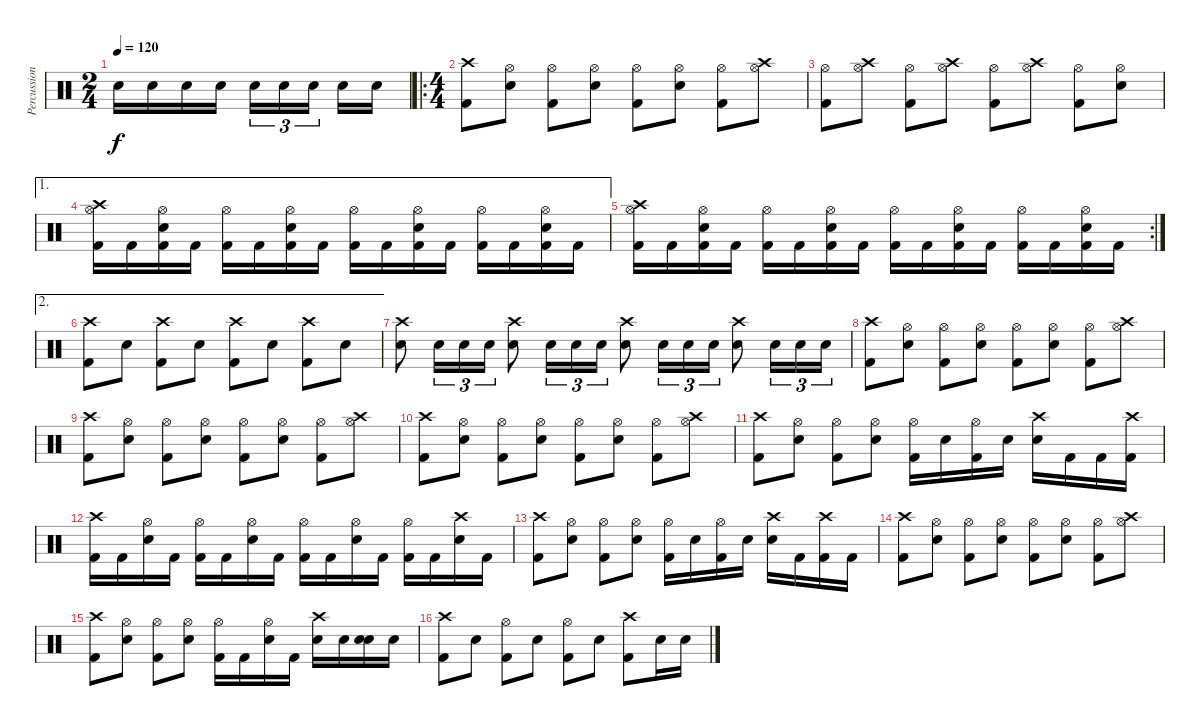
\track ("Percussion" "Percussion") {instrument percussion}
\staff {score}
\articulation defaults
\ts (2 4)
\tempo 120
\clef neutral
\ks c "Electric Snare (hit)".16{dy f} "Electric Snare (hit)".16 "Electric Snare (hit)".16 "Electric Snare (hit)".16 "Electric Snare (hit)".16{tu (3 2)} "Electric Snare (hit)".16{tu (3 2)} "Electric Snare (hit)".16{tu (3 2)} "Electric Snare (hit)".16 "Electric Snare (hit)".16
|
\ro
\ts (4 4)
("Kick (hit) 2" "Crash high (hit)").8 ("Electric Snare (hit)" "Hi-Hat (open)").8 ("Kick (hit) 2" "Hi-Hat (open)").8 ("Electric Snare (hit)" "Hi-Hat (open)").8 ("Kick (hit) 2" "Hi-Hat (open)").8 ("Electric Snare (hit)" "Hi-Hat (open)").8 ("Kick (hit) 2" "Hi-Hat (open)").8 ("Crash high (hit)" "Hi-Hat (open)").8 |
("Kick (hit) 2" "Hi-Hat (open)").8 ("Crash high (hit)" "Hi-Hat (open)").8 ("Kick (hit) 2" "Hi-Hat (open)").8 ("Crash high (hit)" "Hi-Hat (open)").8 ("Kick (hit) 2" "Hi-Hat (open)").8 ("Crash high (hit)" "Hi-Hat (open)").8 ("Kick (hit) 2" "Hi-Hat (open)").8 ("Electric Snare (hit)" "Hi-Hat (open)").8 |
\ae 1
("Crash high (hit)" "Kick (hit) 2" "Hi-Hat (open)").16 "Kick (hit) 2".16 ("Electric Snare (hit)" "Kick (hit) 2" "Hi-Hat (open)").16 "Kick (hit) 2".16 ("Kick (hit) 2" "Hi-Hat (open)").16 "Kick (hit) 2".16 ("Electric Snare (hit)" "Kick (hit) 2" "Hi-Hat (open)").16 "Kick (hit) 2".16 ("Kick (hit) 2" "Hi-Hat (open)").16 "Kick (hit) 2".16 ("Electric Snare (hit)" "Kick (hit) 2" "Hi-Hat (open)").16 "Kick (hit) 2".16 ("Kick (hit) 2" "Hi-Hat (open)").16 "Kick (hit) 2".16 ("Electric Snare (hit)" "Kick (hit) 2" "Hi-Hat (open)").16 "Kick (hit) 2".16 |
\rc 2
("Crash high (hit)" "Kick (hit) 2" "Hi-Hat (open)").16 "Kick (hit) 2".16 ("Electric Snare (hit)" "Kick (hit) 2" "Hi-Hat (open)").16 "Kick (hit) 2".16 ("Kick (hit) 2" "Hi-Hat (open)").16 "Kick (hit) 2".16 ("Electric Snare (hit)" "Kick (hit) 2" "Hi-Hat (open)").16 "Kick (hit) 2".16 ("Kick (hit) 2" "Hi-Hat (open)").16 "Kick (hit) 2".16 ("Electric Snare (hit)" "Kick (hit) 2" "Hi-Hat (open)").16 "Kick (hit) 2".16 ("Kick (hit) 2" "Hi-Hat (open)").16 "Kick (hit) 2".16 ("Electric Snare (hit)" "Kick (hit) 2" "Hi-Hat (open)").16 "Kick (hit) 2".16 |
\ae 2
("Crash high (hit)" "Kick (hit) 2").8 "Electric Snare (hit)".8 ("Crash high (hit)" "Kick (hit) 2").8 "Electric Snare (hit)".8 ("Crash high (hit)" "Kick (hit) 2").8 "Electric Snare (hit)".8 ("Crash high (hit)" "Kick (hit) 2").8 "Electric Snare (hit)".8 |
("Crash high (hit)" "Electric Snare (hit)").8 "Electric Snare (hit)".16{tu (3 2)} "Electric Snare (hit)".16{tu (3 2)} "Electric Snare (hit)".16{tu (3 2)} ("Crash high (hit)" "Electric Snare (hit)").8 "Electric Snare (hit)".16{tu (3 2)} "Electric Snare (hit)".16{tu (3 2)} "Electric Snare (hit)".16{tu (3 2)} ("Crash high (hit)" "Electric Snare (hit)").8 "Electric Snare (hit)".16{tu (3 2)} "Electric Snare (hit)".16{tu (3 2)} "Electric Snare (hit)".16{tu (3 2)} ("Crash high (hit)" "Electric Snare (hit)").8 "Electric Snare (hit)".16{tu (3 2)} "Electric Snare (hit)".16{tu (3 2)} "Electric Snare (hit)".16{tu (3 2)} |
("Kick (hit) 2" "Crash high (hit)").8 ("Electric Snare (hit)" "Hi-Hat (open)").8 ("Kick (hit) 2" "Hi-Hat (open)").8 ("Electric Snare (hit)" "Hi-Hat (open)").8 ("Kick (hit) 2" "Hi-Hat (open)").8 ("Electric Snare (hit)" "Hi-Hat (open)").8 ("Kick (hit) 2" "Hi-Hat (open)").8 ("Crash high (hit)" "Hi-Hat (open)").8 |
("Kick (hit) 2" "Crash high (hit)").8 ("Electric Snare (hit)" "Hi-Hat (open)").8 ("Kick (hit) 2" "Hi-Hat (open)").8 ("Electric Snare (hit)" "Hi-Hat (open)").8 ("Kick (hit) 2" "Hi-Hat (open)").8 ("Electric Snare (hit)" "Hi-Hat (open)").8 ("Kick (hit) 2" "Hi-Hat (open)").8 ("Crash high (hit)" "Hi-Hat (open)").8 |
("Kick (hit) 2" "Crash high (hit)").8 ("Electric Snare (hit)" "Hi-Hat (open)").8 ("Kick (hit) 2" "Hi-Hat (open)").8 ("Electric Snare (hit)" "Hi-Hat (open)").8 ("Kick (hit) 2" "Hi-Hat (open)").8 ("Electric Snare (hit)" "Hi-Hat (open)").8 ("Kick (hit) 2" "Hi-Hat (open)").8 ("Crash high (hit)" "Hi-Hat (open)").8 |
("Kick (hit) 2" "Crash high (hit)").8 ("Electric Snare (hit)" "Hi-Hat (open)").8 ("Kick (hit) 2" "Hi-Hat (open)").8 ("Electric Snare (hit)" "Hi-Hat (open)").8 ("Kick (hit) 2" "Hi-Hat (open)").16 "Electric Snare (hit)".16 ("Kick (hit) 2" "Hi-Hat (open)").16 "Electric Snare (hit)".16 ("Electric Snare (hit)" "Crash high (hit)").16 "Kick (hit) 2".16 "Kick (hit) 2".16 ("Crash high (hit)" "Kick (hit) 2").16 |
("Crash high (hit)" "Kick (hit) 2").16 "Kick (hit) 2".16 ("Hi-Hat (open)" "Electric Snare (hit)").16 "Kick (hit) 2".16 ("Hi-Hat (open)" "Kick (hit) 2").16 "Kick (hit) 2".16 ("Hi-Hat (open)" "Electric Snare (hit)").16 "Kick (hit) 2".16 ("Hi-Hat (open)" "Kick (hit) 2").16 "Kick (hit) 2".16 ("Hi-Hat (open)" "Electric Snare (hit)").16 "Kick (hit) 2".16 ("Hi-Hat (open)" "Kick (hit) 2").16 "Kick (hit) 2".16 ("Crash high (hit)" "Electric Snare (hit)").16 "Kick (hit) 2".16 |
("Kick (hit) 2" "Crash high (hit)").8 ("Electric Snare (hit)" "Hi-Hat (open)").8 ("Kick (hit) 2" "Hi-Hat (open)").8 ("Electric Snare (hit)" "Hi-Hat (open)").8 ("Kick (hit) 2" "Hi-Hat (open)").16 "Electric Snare (hit)".16 ("Kick (hit) 2" "Hi-Hat (open)").16 "Electric Snare (hit)".16 ("Electric Snare (hit)" "Crash high (hit)").16 "Kick (hit) 2".16 ("Crash high (hit)" "Kick (hit) 2").16 "Kick (hit) 2".16 |
("Kick (hit) 2" "Crash high (hit)").8 ("Electric Snare (hit)" "Hi-Hat (open)").8 ("Kick (hit) 2" "Hi-Hat (open)").8 ("Electric Snare (hit)" "Hi-Hat (open)").8 ("Kick (hit) 2" "Hi-Hat (open)").8 ("Electric Snare (hit)" "Hi-Hat (open)").8 ("Kick (hit) 2" "Hi-Hat (open)").8 ("Crash high (hit)" "Hi-Hat (open)").8 |
("Kick (hit) 2" "Crash high (hit)").8 ("Electric Snare (hit)" "Hi-Hat (open)").8 ("Kick (hit) 2" "Hi-Hat (open)").8 ("Electric Snare (hit)" "Hi-Hat (open)").8 ("Kick (hit) 2" "Hi-Hat (open)").16 "Kick (hit) 2".16 ("Electric Snare (hit)" "Hi-Hat (open)").16 "Kick (hit) 2".16 ("Crash high (hit)" "Electric Snare (hit)").16 "Electric Snare (hit)".16 ("Electric Snare (hit)" "Electric Snare (hit)").16 "Electric Snare (hit)".16 |
("Crash high (hit)" "Kick (hit) 2").8 "Electric Snare (hit)".8 ("Hi-Hat (open)" "Kick (hit) 2").8 "Electric Snare (hit)".8 ("Hi-Hat (open)" "Kick (hit) 2").8 "Electric Snare (hit)".8 ("Crash high (hit)" "Kick (hit) 2").8 "Electric Snare (hit)".16 "Electric Snare (hit)".16
